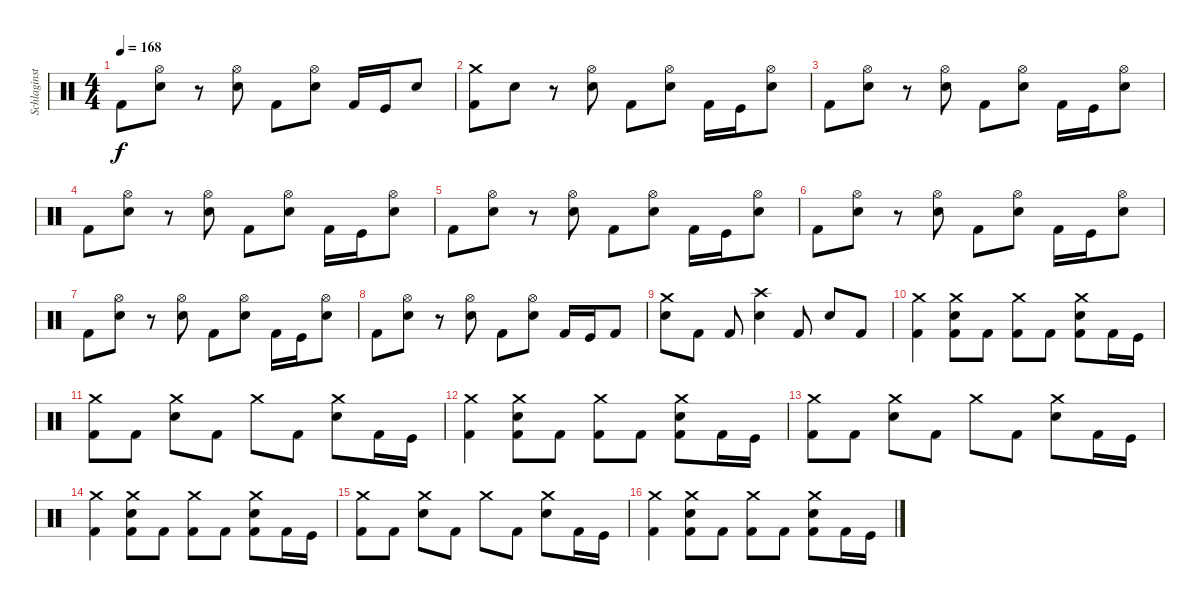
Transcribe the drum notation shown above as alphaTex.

\track ("Schlaginstrumente - Auswahl" "Schlaginst") {instrument percussion}
\staff
\articulation defaults
\ts (4 4)
\tempo 168
\clef neutral
\ks c "Kick (hit) 2".8{dy f}
("Hi-Hat (open)" "Electric Snare (hit)").8 r.8 ("Hi-Hat (open)" "Electric Snare (hit)").8 "Kick (hit) 2".8 ("Hi-Hat (open)" "Electric Snare (hit)").8 "Kick (hit) 2".16 "Kick (hit)".16 "Electric Snare (hit)".8 |
("Crash medium (hit)" "Kick (hit) 2").8 "Electric Snare (hit)".8 r.8 ("Hi-Hat (open)" "Electric Snare (hit)").8 "Kick (hit) 2".8 ("Hi-Hat (open)" "Electric Snare (hit)").8 "Kick (hit) 2".16 "Kick (hit)".16 ("Hi-Hat (open)" "Electric Snare (hit)").8 |
"Kick (hit) 2".8 ("Hi-Hat (open)" "Electric Snare (hit)").8 r.8 ("Hi-Hat (open)" "Electric Snare (hit)").8 "Kick (hit) 2".8 ("Hi-Hat (open)" "Electric Snare (hit)").8 "Kick (hit) 2".16 "Kick (hit)".16 ("Hi-Hat (open)" "Electric Snare (hit)").8 |
"Kick (hit) 2".8 ("Hi-Hat (open)" "Electric Snare (hit)").8 r.8 ("Hi-Hat (open)" "Electric Snare (hit)").8 "Kick (hit) 2".8 ("Hi-Hat (open)" "Electric Snare (hit)").8 "Kick (hit) 2".16 "Kick (hit)".16 ("Hi-Hat (open)" "Electric Snare (hit)").8 |
"Kick (hit) 2".8 ("Hi-Hat (open)" "Electric Snare (hit)").8 r.8 ("Hi-Hat (open)" "Electric Snare (hit)").8 "Kick (hit) 2".8 ("Hi-Hat (open)" "Electric Snare (hit)").8 "Kick (hit) 2".16 "Kick (hit)".16 ("Hi-Hat (open)" "Electric Snare (hit)").8 |
"Kick (hit) 2".8 ("Hi-Hat (open)" "Electric Snare (hit)").8 r.8 ("Hi-Hat (open)" "Electric Snare (hit)").8 "Kick (hit) 2".8 ("Hi-Hat (open)" "Electric Snare (hit)").8 "Kick (hit) 2".16 "Kick (hit)".16 ("Hi-Hat (open)" "Electric Snare (hit)").8 |
"Kick (hit) 2".8 ("Hi-Hat (open)" "Electric Snare (hit)").8 r.8 ("Hi-Hat (open)" "Electric Snare (hit)").8 "Kick (hit) 2".8 ("Hi-Hat (open)" "Electric Snare (hit)").8 "Kick (hit) 2".16 "Kick (hit)".16 ("Hi-Hat (open)" "Electric Snare (hit)").8 |
"Kick (hit) 2".8 ("Hi-Hat (open)" "Electric Snare (hit)").8 r.8 ("Hi-Hat (open)" "Electric Snare (hit)").8 "Kick (hit) 2".8 ("Hi-Hat (open)" "Electric Snare (hit)").8 "Kick (hit) 2".16 "Kick (hit)".16 "Kick (hit) 2".8 |
("Crash medium (hit)" "Electric Snare (hit)").8 "Kick (hit) 2".8 "Kick (hit) 2".8 ("Crash high (hit)" "Electric Snare (hit)").4 "Kick (hit) 2".8 "Electric Snare (hit)".8 "Kick (hit) 2".8 |
("Crash medium (hit)" "Kick (hit) 2").4 ("Crash medium (hit)" "Electric Snare (hit)" "Kick (hit) 2").8 "Kick (hit) 2".8 ("Crash medium (hit)" "Kick (hit) 2").8 "Kick (hit) 2".8 ("Crash medium (hit)" "Electric Snare (hit)" "Kick (hit) 2").8 "Kick (hit) 2".16 "Kick (hit)".16 |
("Crash medium (hit)" "Kick (hit) 2").8 "Kick (hit) 2".8 ("Crash medium (hit)" "Electric Snare (hit)").8 "Kick (hit) 2".8 "Crash medium (hit)".8 "Kick (hit) 2".8 ("Crash medium (hit)" "Electric Snare (hit)").8 "Kick (hit) 2".16 "Kick (hit)".16 |
("Crash medium (hit)" "Kick (hit) 2").4 ("Crash medium (hit)" "Electric Snare (hit)" "Kick (hit) 2").8 "Kick (hit) 2".8 ("Crash medium (hit)" "Kick (hit) 2").8 "Kick (hit) 2".8 ("Crash medium (hit)" "Electric Snare (hit)" "Kick (hit) 2").8 "Kick (hit) 2".16 "Kick (hit)".16 |
("Crash medium (hit)" "Kick (hit) 2").8 "Kick (hit) 2".8 ("Crash medium (hit)" "Electric Snare (hit)").8 "Kick (hit) 2".8 "Crash medium (hit)".8 "Kick (hit) 2".8 ("Crash medium (hit)" "Electric Snare (hit)").8 "Kick (hit) 2".16 "Kick (hit)".16 |
("Crash medium (hit)" "Kick (hit) 2").4 ("Crash medium (hit)" "Electric Snare (hit)" "Kick (hit) 2").8 "Kick (hit) 2".8 ("Crash medium (hit)" "Kick (hit) 2").8 "Kick (hit) 2".8 ("Crash medium (hit)" "Electric Snare (hit)" "Kick (hit) 2").8 "Kick (hit) 2".16 "Kick (hit)".16 |
("Crash medium (hit)" "Kick (hit) 2").8 "Kick (hit) 2".8 ("Crash medium (hit)" "Electric Snare (hit)").8 "Kick (hit) 2".8 "Crash medium (hit)".8 "Kick (hit) 2".8 ("Crash medium (hit)" "Electric Snare (hit)").8 "Kick (hit) 2".16 "Kick (hit)".16 |
("Crash medium (hit)" "Kick (hit) 2").4 ("Crash medium (hit)" "Electric Snare (hit)" "Kick (hit) 2").8 "Kick (hit) 2".8 ("Crash medium (hit)" "Kick (hit) 2").8 "Kick (hit) 2".8 ("Crash medium (hit)" "Electric Snare (hit)" "Kick (hit) 2").8 "Kick (hit) 2".16 "Kick (hit)".16
